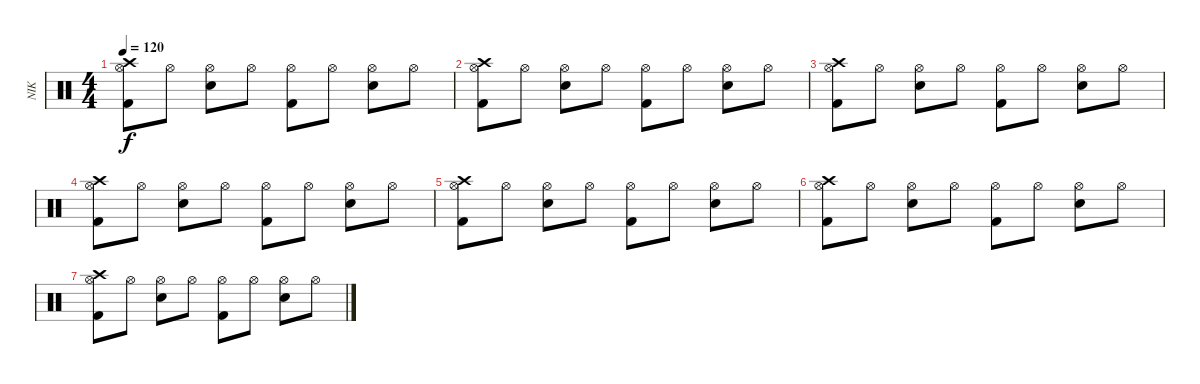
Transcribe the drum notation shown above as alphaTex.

\track ("NIK" "NIK") {instrument percussion}
\staff {score}
\articulation defaults
\ts (4 4)
\tempo 120
\clef neutral
\ks c
("Kick (hit) 2" "Crash high (hit)" "Hi-Hat (open)").8{dy f} "Hi-Hat (open)".8 ("Snare (hit) 2" "Hi-Hat (open)").8 "Hi-Hat (open)".8 ("Kick (hit) 2" "Hi-Hat (open)").8 "Hi-Hat (open)".8 ("Snare (hit) 2" "Hi-Hat (open)").8 "Hi-Hat (open)".8 |
("Kick (hit) 2" "Crash high (hit)" "Hi-Hat (open)").8 "Hi-Hat (open)".8 ("Snare (hit) 2" "Hi-Hat (open)").8 "Hi-Hat (open)".8 ("Kick (hit) 2" "Hi-Hat (open)").8 "Hi-Hat (open)".8 ("Snare (hit) 2" "Hi-Hat (open)").8 "Hi-Hat (open)".8 |
("Kick (hit) 2" "Crash high (hit)" "Hi-Hat (open)").8 "Hi-Hat (open)".8 ("Snare (hit) 2" "Hi-Hat (open)").8 "Hi-Hat (open)".8 ("Kick (hit) 2" "Hi-Hat (open)").8 "Hi-Hat (open)".8 ("Snare (hit) 2" "Hi-Hat (open)").8 "Hi-Hat (open)".8 |
("Kick (hit) 2" "Crash high (hit)" "Hi-Hat (open)").8 "Hi-Hat (open)".8 ("Snare (hit) 2" "Hi-Hat (open)").8 "Hi-Hat (open)".8 ("Kick (hit) 2" "Hi-Hat (open)").8 "Hi-Hat (open)".8 ("Snare (hit) 2" "Hi-Hat (open)").8 "Hi-Hat (open)".8 |
("Kick (hit) 2" "Crash high (hit)" "Hi-Hat (open)").8 "Hi-Hat (open)".8 ("Snare (hit) 2" "Hi-Hat (open)").8 "Hi-Hat (open)".8 ("Kick (hit) 2" "Hi-Hat (open)").8 "Hi-Hat (open)".8 ("Snare (hit) 2" "Hi-Hat (open)").8 "Hi-Hat (open)".8 |
("Kick (hit) 2" "Crash high (hit)" "Hi-Hat (open)").8 "Hi-Hat (open)".8 ("Snare (hit) 2" "Hi-Hat (open)").8 "Hi-Hat (open)".8 ("Kick (hit) 2" "Hi-Hat (open)").8 "Hi-Hat (open)".8 ("Snare (hit) 2" "Hi-Hat (open)").8 "Hi-Hat (open)".8 |
("Kick (hit) 2" "Crash high (hit)" "Hi-Hat (open)").8 "Hi-Hat (open)".8 ("Snare (hit) 2" "Hi-Hat (open)").8 "Hi-Hat (open)".8 ("Kick (hit) 2" "Hi-Hat (open)").8 "Hi-Hat (open)".8 ("Snare (hit) 2" "Hi-Hat (open)").8 "Hi-Hat (open)".8
